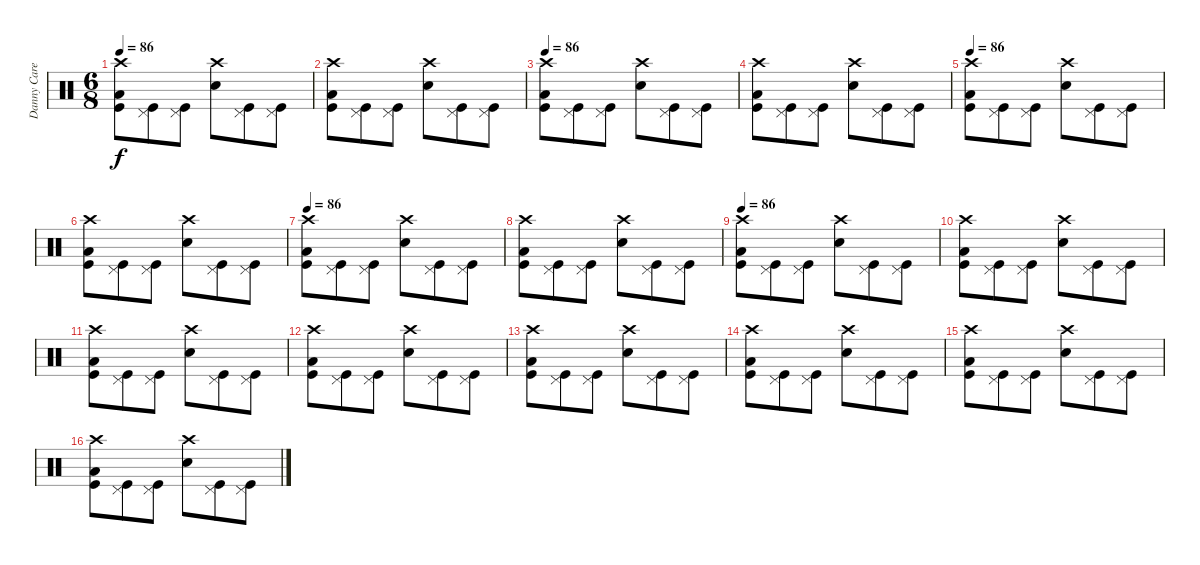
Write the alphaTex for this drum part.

\track ("Danny Carey" "Danny Care") {instrument percussion}
\staff {score}
\articulation defaults
\ts (6 8)
\tempo 86
\clef neutral
\ks c
("Crash high (hit)" "Low Floor Tom (hit)" "Kick (hit)").8{dy f} ("Pedal Hi-Hat (hit)" "Kick (hit)").8 ("Pedal Hi-Hat (hit)" "Kick (hit)").8 ("Crash high (hit)" "Electric Snare (hit)").8 ("Pedal Hi-Hat (hit)" "Kick (hit)").8 ("Pedal Hi-Hat (hit)" "Kick (hit)").8 |
("Crash high (hit)" "Low Floor Tom (hit)" "Kick (hit)").8 ("Pedal Hi-Hat (hit)" "Kick (hit)").8 ("Pedal Hi-Hat (hit)" "Kick (hit)").8 ("Crash high (hit)" "Electric Snare (hit)").8 ("Pedal Hi-Hat (hit)" "Kick (hit)").8 ("Pedal Hi-Hat (hit)" "Kick (hit)").8 |
\tempo 86
("Crash high (hit)" "Low Floor Tom (hit)" "Kick (hit)").8 ("Pedal Hi-Hat (hit)" "Kick (hit)").8 ("Pedal Hi-Hat (hit)" "Kick (hit)").8 ("Crash high (hit)" "Electric Snare (hit)").8 ("Pedal Hi-Hat (hit)" "Kick (hit)").8 ("Pedal Hi-Hat (hit)" "Kick (hit)").8 |
("Crash high (hit)" "Low Floor Tom (hit)" "Kick (hit)").8 ("Pedal Hi-Hat (hit)" "Kick (hit)").8 ("Pedal Hi-Hat (hit)" "Kick (hit)").8 ("Crash high (hit)" "Electric Snare (hit)").8 ("Pedal Hi-Hat (hit)" "Kick (hit)").8 ("Pedal Hi-Hat (hit)" "Kick (hit)").8 |
\tempo 86
("Crash high (hit)" "Low Floor Tom (hit)" "Kick (hit)").8 ("Pedal Hi-Hat (hit)" "Kick (hit)").8 ("Pedal Hi-Hat (hit)" "Kick (hit)").8 ("Crash high (hit)" "Electric Snare (hit)").8 ("Pedal Hi-Hat (hit)" "Kick (hit)").8 ("Pedal Hi-Hat (hit)" "Kick (hit)").8 |
("Crash high (hit)" "Low Floor Tom (hit)" "Kick (hit)").8 ("Pedal Hi-Hat (hit)" "Kick (hit)").8 ("Pedal Hi-Hat (hit)" "Kick (hit)").8 ("Crash high (hit)" "Electric Snare (hit)").8 ("Pedal Hi-Hat (hit)" "Kick (hit)").8 ("Pedal Hi-Hat (hit)" "Kick (hit)").8 |
\tempo 86
("Crash high (hit)" "Low Floor Tom (hit)" "Kick (hit)").8 ("Pedal Hi-Hat (hit)" "Kick (hit)").8 ("Pedal Hi-Hat (hit)" "Kick (hit)").8 ("Crash high (hit)" "Electric Snare (hit)").8 ("Pedal Hi-Hat (hit)" "Kick (hit)").8 ("Pedal Hi-Hat (hit)" "Kick (hit)").8 |
("Crash high (hit)" "Low Floor Tom (hit)" "Kick (hit)").8 ("Pedal Hi-Hat (hit)" "Kick (hit)").8 ("Pedal Hi-Hat (hit)" "Kick (hit)").8 ("Crash high (hit)" "Electric Snare (hit)").8 ("Pedal Hi-Hat (hit)" "Kick (hit)").8 ("Pedal Hi-Hat (hit)" "Kick (hit)").8 |
\tempo 86
("Crash high (hit)" "Low Floor Tom (hit)" "Kick (hit)").8 ("Pedal Hi-Hat (hit)" "Kick (hit)").8 ("Pedal Hi-Hat (hit)" "Kick (hit)").8 ("Crash high (hit)" "Electric Snare (hit)").8 ("Pedal Hi-Hat (hit)" "Kick (hit)").8 ("Pedal Hi-Hat (hit)" "Kick (hit)").8 |
("Crash high (hit)" "Low Floor Tom (hit)" "Kick (hit)").8 ("Pedal Hi-Hat (hit)" "Kick (hit)").8 ("Pedal Hi-Hat (hit)" "Kick (hit)").8 ("Crash high (hit)" "Electric Snare (hit)").8 ("Pedal Hi-Hat (hit)" "Kick (hit)").8 ("Pedal Hi-Hat (hit)" "Kick (hit)").8 |
("Crash high (hit)" "Low Floor Tom (hit)" "Kick (hit)").8 ("Pedal Hi-Hat (hit)" "Kick (hit)").8 ("Pedal Hi-Hat (hit)" "Kick (hit)").8 ("Crash high (hit)" "Electric Snare (hit)").8 ("Pedal Hi-Hat (hit)" "Kick (hit)").8 ("Pedal Hi-Hat (hit)" "Kick (hit)").8 |
("Crash high (hit)" "Low Floor Tom (hit)" "Kick (hit)").8 ("Pedal Hi-Hat (hit)" "Kick (hit)").8 ("Pedal Hi-Hat (hit)" "Kick (hit)").8 ("Crash high (hit)" "Electric Snare (hit)").8 ("Pedal Hi-Hat (hit)" "Kick (hit)").8 ("Pedal Hi-Hat (hit)" "Kick (hit)").8 |
("Crash high (hit)" "Low Floor Tom (hit)" "Kick (hit)").8 ("Pedal Hi-Hat (hit)" "Kick (hit)").8 ("Pedal Hi-Hat (hit)" "Kick (hit)").8 ("Crash high (hit)" "Electric Snare (hit)").8 ("Pedal Hi-Hat (hit)" "Kick (hit)").8 ("Pedal Hi-Hat (hit)" "Kick (hit)").8 |
("Crash high (hit)" "Low Floor Tom (hit)" "Kick (hit)").8 ("Pedal Hi-Hat (hit)" "Kick (hit)").8 ("Pedal Hi-Hat (hit)" "Kick (hit)").8 ("Crash high (hit)" "Electric Snare (hit)").8 ("Pedal Hi-Hat (hit)" "Kick (hit)").8 ("Pedal Hi-Hat (hit)" "Kick (hit)").8 |
("Crash high (hit)" "Low Floor Tom (hit)" "Kick (hit)").8 ("Pedal Hi-Hat (hit)" "Kick (hit)").8 ("Pedal Hi-Hat (hit)" "Kick (hit)").8 ("Crash high (hit)" "Electric Snare (hit)").8 ("Pedal Hi-Hat (hit)" "Kick (hit)").8 ("Pedal Hi-Hat (hit)" "Kick (hit)").8 |
("Crash high (hit)" "Low Floor Tom (hit)" "Kick (hit)").8 ("Pedal Hi-Hat (hit)" "Kick (hit)").8 ("Pedal Hi-Hat (hit)" "Kick (hit)").8 ("Crash high (hit)" "Electric Snare (hit)").8 ("Pedal Hi-Hat (hit)" "Kick (hit)").8 ("Pedal Hi-Hat (hit)" "Kick (hit)").8
